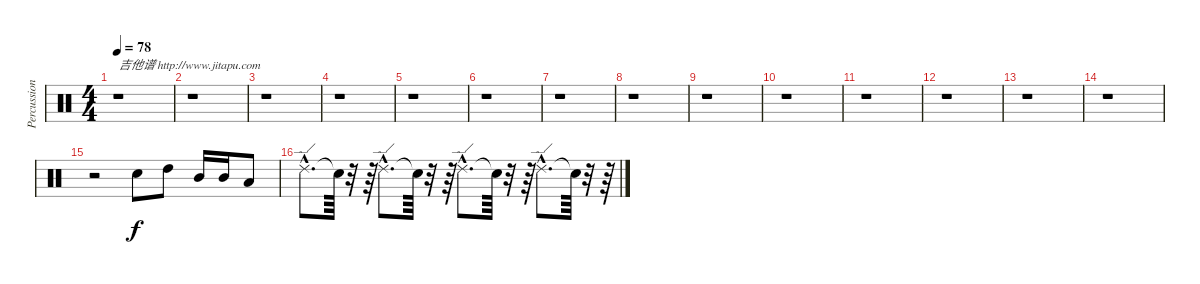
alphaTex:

\track ("Percussion" "Percussion") {instrument percussion}
\staff {score}
\articulation defaults
\ts (4 4)
\tempo 78
\clef neutral
\ks c
r.1{txt "吉他谱 http://www.jitapu.com" dy f} |
r.1 |
r.1 |
r.1 |
r.1 |
r.1 |
r.1 |
r.1 |
r.1 |
r.1 |
r.1 |
r.1 |
r.1 |
r.1 |
r.2 "Snare (hit) 2".8 "High Tom (hit)".8 "Mid Tom (hit)".16 "Mid Tom (hit)".16 "Low Tom (hit)".8 |
"Ride (edge) 2"{hac}.8{d} "Snare (hit)"{t}.64 r.32 r.64 "Ride (edge) 2"{hac}.8{d} "Snare (hit)"{t}.64 r.32 r.64 "Ride (edge) 2"{hac}.8{d} "Snare (hit)"{t}.64 r.32 r.64 "Ride (edge) 2"{hac}.8{d} "Snare (hit)"{t}.64 r.32 r.64
